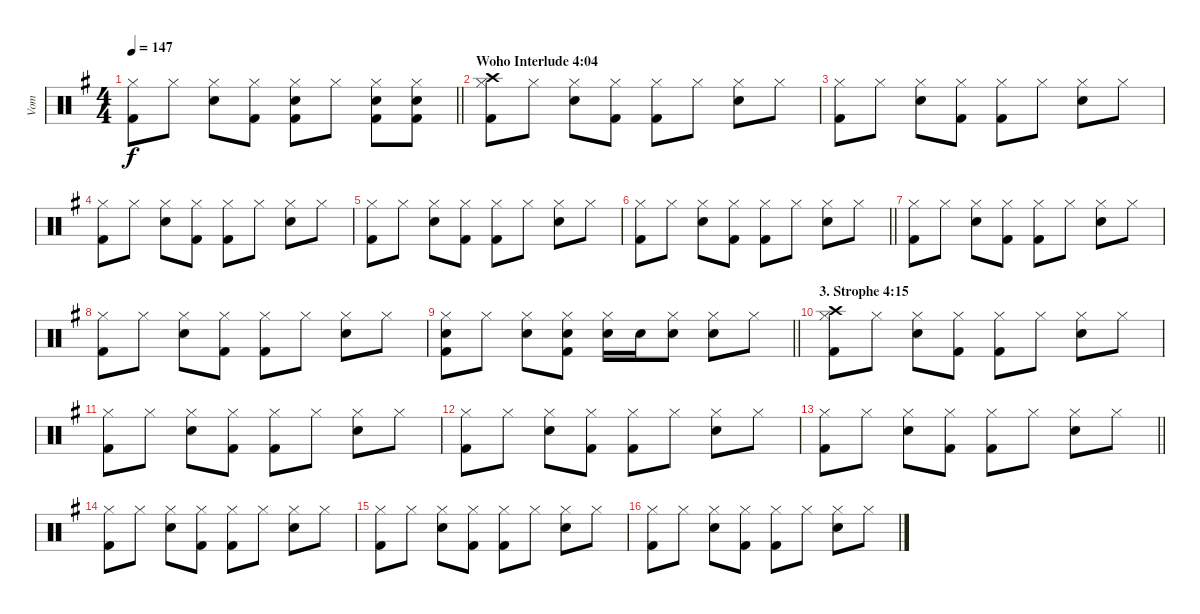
\track ("Vom" "Vom") {instrument percussion}
\staff {score}
\articulation defaults
\ts (4 4)
\tempo 147
\clef neutral
\barLineRight lightlight
\ks g
("Hi-Hat (closed)" "Kick (hit) 2").8{dy f} "Hi-Hat (closed)".8 ("Hi-Hat (closed)" "Snare (hit) 2").8 ("Hi-Hat (closed)" "Kick (hit) 2").8 ("Hi-Hat (closed)" "Snare (hit) 2" "Kick (hit) 2").8 "Hi-Hat (closed)".8 ("Hi-Hat (closed)" "Snare (hit) 2" "Kick (hit) 2").8 ("Hi-Hat (closed)" "Snare (hit) 2" "Kick (hit) 2").8 |
\section ("" "Woho Interlude 4:04")
("Crash high (hit)" "Hi-Hat (closed)" "Kick (hit) 2").8 "Hi-Hat (closed)".8 ("Hi-Hat (closed)" "Snare (hit) 2").8 ("Hi-Hat (closed)" "Kick (hit) 2").8 ("Hi-Hat (closed)" "Kick (hit) 2").8 "Hi-Hat (closed)".8 ("Hi-Hat (closed)" "Snare (hit) 2").8 "Hi-Hat (closed)".8 |
("Hi-Hat (closed)" "Kick (hit) 2").8 "Hi-Hat (closed)".8 ("Hi-Hat (closed)" "Snare (hit) 2").8 ("Hi-Hat (closed)" "Kick (hit) 2").8 ("Hi-Hat (closed)" "Kick (hit) 2").8 "Hi-Hat (closed)".8 ("Hi-Hat (closed)" "Snare (hit) 2").8 "Hi-Hat (closed)".8 |
("Hi-Hat (closed)" "Kick (hit) 2").8 "Hi-Hat (closed)".8 ("Hi-Hat (closed)" "Snare (hit) 2").8 ("Hi-Hat (closed)" "Kick (hit) 2").8 ("Hi-Hat (closed)" "Kick (hit) 2").8 "Hi-Hat (closed)".8 ("Hi-Hat (closed)" "Snare (hit) 2").8 "Hi-Hat (closed)".8 |
("Hi-Hat (closed)" "Kick (hit) 2").8 "Hi-Hat (closed)".8 ("Hi-Hat (closed)" "Snare (hit) 2").8 ("Hi-Hat (closed)" "Kick (hit) 2").8 ("Hi-Hat (closed)" "Kick (hit) 2").8 "Hi-Hat (closed)".8 ("Hi-Hat (closed)" "Snare (hit) 2").8 "Hi-Hat (closed)".8 |
\barLineRight lightlight
("Hi-Hat (closed)" "Kick (hit) 2").8 "Hi-Hat (closed)".8 ("Hi-Hat (closed)" "Snare (hit) 2").8 ("Hi-Hat (closed)" "Kick (hit) 2").8 ("Hi-Hat (closed)" "Kick (hit) 2").8 "Hi-Hat (closed)".8 ("Hi-Hat (closed)" "Snare (hit) 2").8 "Hi-Hat (closed)".8 |
("Hi-Hat (closed)" "Kick (hit) 2").8 "Hi-Hat (closed)".8 ("Hi-Hat (closed)" "Snare (hit) 2").8 ("Hi-Hat (closed)" "Kick (hit) 2").8 ("Hi-Hat (closed)" "Kick (hit) 2").8 "Hi-Hat (closed)".8 ("Hi-Hat (closed)" "Snare (hit) 2").8 "Hi-Hat (closed)".8 |
("Hi-Hat (closed)" "Kick (hit) 2").8 "Hi-Hat (closed)".8 ("Hi-Hat (closed)" "Snare (hit) 2").8 ("Hi-Hat (closed)" "Kick (hit) 2").8 ("Hi-Hat (closed)" "Kick (hit) 2").8 "Hi-Hat (closed)".8 ("Hi-Hat (closed)" "Snare (hit) 2").8 "Hi-Hat (closed)".8 |
\barLineRight lightlight
("Hi-Hat (closed)" "Snare (hit) 2" "Kick (hit) 2").8 "Hi-Hat (closed)".8 ("Hi-Hat (closed)" "Snare (hit) 2").8 ("Hi-Hat (closed)" "Snare (hit) 2" "Kick (hit) 2").8 ("Hi-Hat (closed)" "Snare (hit) 2").16 "Snare (hit) 2".16 ("Hi-Hat (closed)" "Snare (hit) 2").8 ("Hi-Hat (closed)" "Snare (hit) 2").8 "Hi-Hat (closed)".8 |
\section ("" "3. Strophe 4:15")
("Crash high (hit)" "Hi-Hat (closed)" "Kick (hit) 2").8 "Hi-Hat (closed)".8 ("Hi-Hat (closed)" "Snare (hit) 2").8 ("Hi-Hat (closed)" "Kick (hit) 2").8 ("Hi-Hat (closed)" "Kick (hit) 2").8 "Hi-Hat (closed)".8 ("Hi-Hat (closed)" "Snare (hit) 2").8 "Hi-Hat (closed)".8 |
("Hi-Hat (closed)" "Kick (hit) 2").8 "Hi-Hat (closed)".8 ("Hi-Hat (closed)" "Snare (hit) 2").8 ("Hi-Hat (closed)" "Kick (hit) 2").8 ("Hi-Hat (closed)" "Kick (hit) 2").8 "Hi-Hat (closed)".8 ("Hi-Hat (closed)" "Snare (hit) 2").8 "Hi-Hat (closed)".8 |
("Hi-Hat (closed)" "Kick (hit) 2").8 "Hi-Hat (closed)".8 ("Hi-Hat (closed)" "Snare (hit) 2").8 ("Hi-Hat (closed)" "Kick (hit) 2").8 ("Hi-Hat (closed)" "Kick (hit) 2").8 "Hi-Hat (closed)".8 ("Hi-Hat (closed)" "Snare (hit) 2").8 "Hi-Hat (closed)".8 |
\barLineRight lightlight
("Hi-Hat (closed)" "Kick (hit) 2").8 "Hi-Hat (closed)".8 ("Hi-Hat (closed)" "Snare (hit) 2").8 ("Hi-Hat (closed)" "Kick (hit) 2").8 ("Hi-Hat (closed)" "Kick (hit) 2").8 "Hi-Hat (closed)".8 ("Hi-Hat (closed)" "Snare (hit) 2").8 "Hi-Hat (closed)".8 |
("Hi-Hat (closed)" "Kick (hit) 2").8 "Hi-Hat (closed)".8 ("Hi-Hat (closed)" "Snare (hit) 2").8 ("Hi-Hat (closed)" "Kick (hit) 2").8 ("Hi-Hat (closed)" "Kick (hit) 2").8 "Hi-Hat (closed)".8 ("Hi-Hat (closed)" "Snare (hit) 2").8 "Hi-Hat (closed)".8 |
("Hi-Hat (closed)" "Kick (hit) 2").8 "Hi-Hat (closed)".8 ("Hi-Hat (closed)" "Snare (hit) 2").8 ("Hi-Hat (closed)" "Kick (hit) 2").8 ("Hi-Hat (closed)" "Kick (hit) 2").8 "Hi-Hat (closed)".8 ("Hi-Hat (closed)" "Snare (hit) 2").8 "Hi-Hat (closed)".8 |
("Hi-Hat (closed)" "Kick (hit) 2").8 "Hi-Hat (closed)".8 ("Hi-Hat (closed)" "Snare (hit) 2").8 ("Hi-Hat (closed)" "Kick (hit) 2").8 ("Hi-Hat (closed)" "Kick (hit) 2").8 "Hi-Hat (closed)".8 ("Hi-Hat (closed)" "Snare (hit) 2").8 "Hi-Hat (closed)".8
